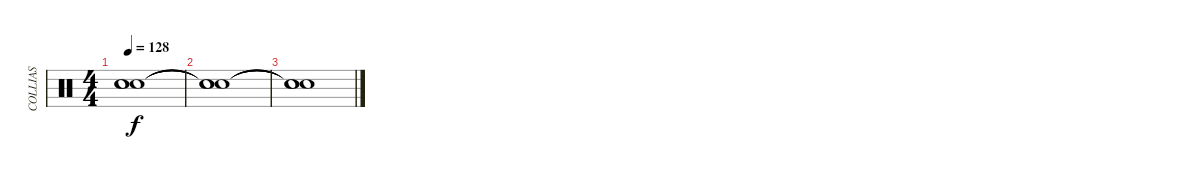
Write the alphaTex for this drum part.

\track ("COLLIAS" "COLLIAS") {instrument percussion}
\staff
\articulation defaults
\ts (4 4)
\tempo 128
\clef neutral
\ks c
("Snare (hit)"{t} "Snare (hit)"{t} "Snare (hit)"{t}).1{dy f} |
("Snare (hit)"{t} "Snare (hit)"{t} "Snare (hit)"{t}).1 |
("Snare (hit)"{t} "Snare (hit)"{t} "Snare (hit)"{t}).1
